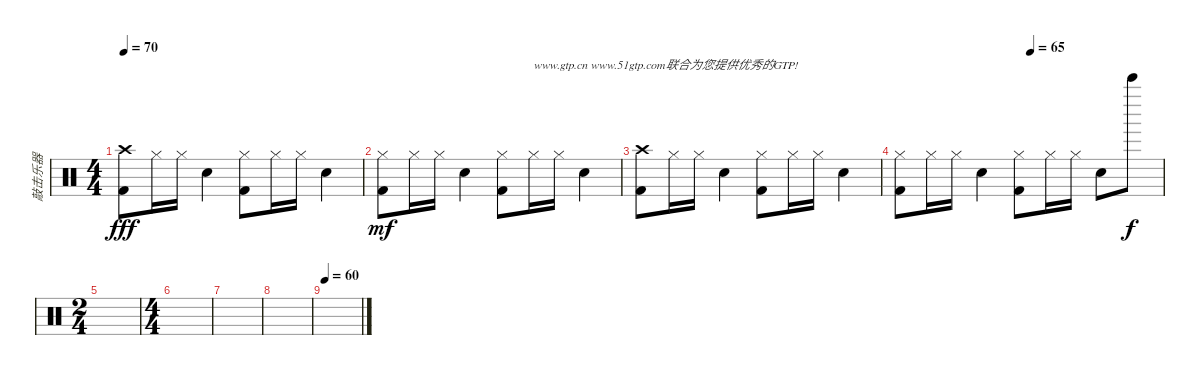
\track ("敲击乐器" "敲击乐器") {instrument percussion}
\staff {score}
\articulation defaults
\ts (4 4)
\tempo 70
\clef neutral
\ks c
("Crash high (hit)" "Kick (hit) 2").8{dy fff} "Hi-Hat (closed)".16 "Hi-Hat (closed)".16 "Electric Snare (hit)".4 ("Hi-Hat (closed)" "Kick (hit) 2").8 "Hi-Hat (closed)".16 "Hi-Hat (closed)".16 "Electric Snare (hit)".4 |
("Hi-Hat (closed)" "Kick (hit) 2").8{dy mf} "Hi-Hat (closed)".16 "Hi-Hat (closed)".16 "Electric Snare (hit)".4 ("Hi-Hat (closed)" "Kick (hit) 2").8 "Hi-Hat (closed)".16{txt "www.gtp.cn www.51gtp.com联合为您提供优秀的GTP!"} "Hi-Hat (closed)".16 "Electric Snare (hit)".4 |
("Crash high (hit)" "Kick (hit) 2").8 "Hi-Hat (closed)".16 "Hi-Hat (closed)".16 "Electric Snare (hit)".4 ("Hi-Hat (closed)" "Kick (hit) 2").8 "Hi-Hat (closed)".16 "Hi-Hat (closed)".16 "Electric Snare (hit)".4 |
\tempo (65 0.5)
("Hi-Hat (closed)" "Kick (hit) 2").8 "Hi-Hat (closed)".16 "Hi-Hat (closed)".16 "Electric Snare (hit)".4 ("Hi-Hat (closed)" "Kick (hit) 2").8 "Hi-Hat (closed)".16 "Hi-Hat (closed)".16 "Electric Snare (hit)".8 "Bell Tree (hit)".8{dy f} |
\ts (2 4)
|
\ts (4 4)
|
|
|
\tempo 60
